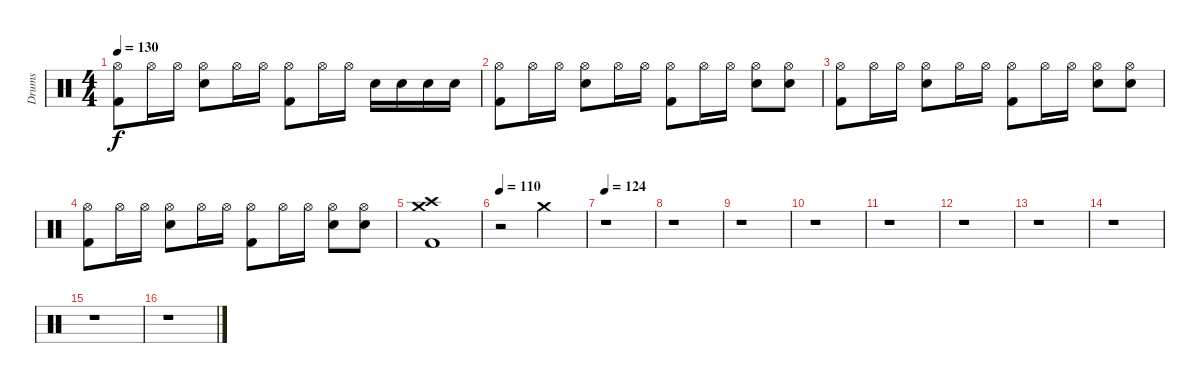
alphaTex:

\track ("Drums" "Drums") {instrument percussion}
\staff {score}
\articulation defaults
\ts (4 4)
\tempo 130
\clef neutral
\ks c
("Hi-Hat (open)" "Kick (hit) 2").8{dy f} "Hi-Hat (open)".16 "Hi-Hat (open)".16 ("Hi-Hat (open)" "Snare (hit) 2").8 "Hi-Hat (open)".16 "Hi-Hat (open)".16 ("Hi-Hat (open)" "Kick (hit) 2").8 "Hi-Hat (open)".16 "Hi-Hat (open)".16 "Snare (hit) 2".16 "Snare (hit) 2".16 "Snare (hit) 2".16 "Snare (hit) 2".16 |
("Hi-Hat (open)" "Kick (hit) 2").8 "Hi-Hat (open)".16 "Hi-Hat (open)".16 ("Hi-Hat (open)" "Snare (hit) 2").8 "Hi-Hat (open)".16 "Hi-Hat (open)".16 ("Hi-Hat (open)" "Kick (hit) 2").8 "Hi-Hat (open)".16 "Hi-Hat (open)".16 ("Hi-Hat (open)" "Snare (hit) 2").8 ("Hi-Hat (open)" "Snare (hit) 2").8 |
("Hi-Hat (open)" "Kick (hit) 2").8 "Hi-Hat (open)".16 "Hi-Hat (open)".16 ("Hi-Hat (open)" "Snare (hit) 2").8 "Hi-Hat (open)".16 "Hi-Hat (open)".16 ("Hi-Hat (open)" "Kick (hit) 2").8 "Hi-Hat (open)".16 "Hi-Hat (open)".16 ("Hi-Hat (open)" "Snare (hit) 2").8 ("Hi-Hat (open)" "Snare (hit) 2").8 |
("Hi-Hat (open)" "Kick (hit) 2").8 "Hi-Hat (open)".16 "Hi-Hat (open)".16 ("Hi-Hat (open)" "Snare (hit) 2").8 "Hi-Hat (open)".16 "Hi-Hat (open)".16 ("Hi-Hat (open)" "Kick (hit) 2").8 "Hi-Hat (open)".16 "Hi-Hat (open)".16 ("Hi-Hat (open)" "Snare (hit) 2").8 ("Hi-Hat (open)" "Snare (hit) 2").8 |
("Crash medium (hit)" "Crash high (hit)" "Kick (hit) 2").1 |
\tempo 110
r.2 "Crash medium (hit)".2 |
\tempo 124
r.1 |
r.1 |
r.1 |
r.1 |
r.1 |
r.1 |
r.1 |
r.1 |
r.1 |
r.1
